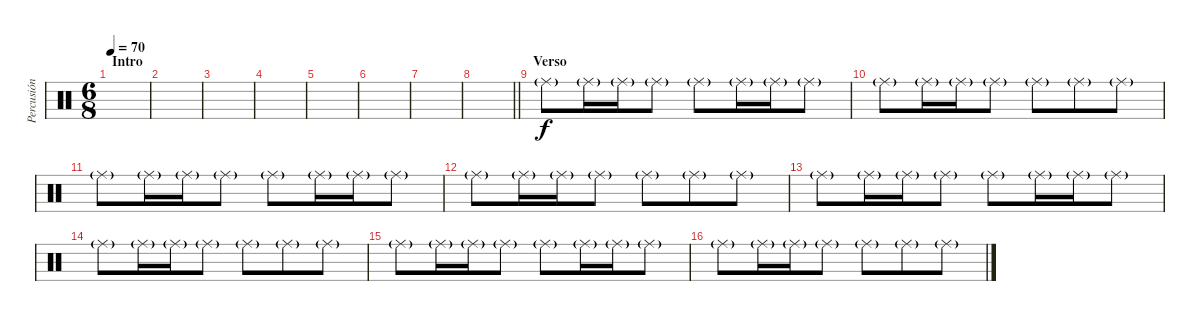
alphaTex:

\track ("Percusión" "Percusión") {instrument percussion}
\staff {score}
\articulation defaults
\ts (6 8)
\section ("" "Intro")
\tempo 70
\clef neutral
\ks c
|
|
|
|
|
|
|
\barLineRight lightlight
|
\section ("" "Verso")
"Ride (middle)"{g}.8{volume 8} "Ride (middle)"{g}.16 "Ride (middle)"{g}.16 "Ride (middle)"{g}.8 "Ride (middle)"{g}.8 "Ride (middle)"{g}.16 "Ride (middle)"{g}.16 "Ride (middle)"{g}.8 |
"Ride (middle)"{g}.8 "Ride (middle)"{g}.16 "Ride (middle)"{g}.16 "Ride (middle)"{g}.8 "Ride (middle)"{g}.8 "Ride (middle)"{g}.8 "Ride (middle)"{g}.8 |
"Ride (middle)"{g}.8 "Ride (middle)"{g}.16 "Ride (middle)"{g}.16 "Ride (middle)"{g}.8 "Ride (middle)"{g}.8 "Ride (middle)"{g}.16 "Ride (middle)"{g}.16 "Ride (middle)"{g}.8 |
"Ride (middle)"{g}.8 "Ride (middle)"{g}.16 "Ride (middle)"{g}.16 "Ride (middle)"{g}.8 "Ride (middle)"{g}.8 "Ride (middle)"{g}.8 "Ride (middle)"{g}.8 |
"Ride (middle)"{g}.8 "Ride (middle)"{g}.16 "Ride (middle)"{g}.16 "Ride (middle)"{g}.8 "Ride (middle)"{g}.8 "Ride (middle)"{g}.16 "Ride (middle)"{g}.16 "Ride (middle)"{g}.8 |
"Ride (middle)"{g}.8 "Ride (middle)"{g}.16 "Ride (middle)"{g}.16 "Ride (middle)"{g}.8 "Ride (middle)"{g}.8 "Ride (middle)"{g}.8 "Ride (middle)"{g}.8 |
"Ride (middle)"{g}.8 "Ride (middle)"{g}.16 "Ride (middle)"{g}.16 "Ride (middle)"{g}.8 "Ride (middle)"{g}.8 "Ride (middle)"{g}.16 "Ride (middle)"{g}.16 "Ride (middle)"{g}.8 |
"Ride (middle)"{g}.8 "Ride (middle)"{g}.16 "Ride (middle)"{g}.16 "Ride (middle)"{g}.8 "Ride (middle)"{g}.8 "Ride (middle)"{g}.8 "Ride (middle)"{g}.8
